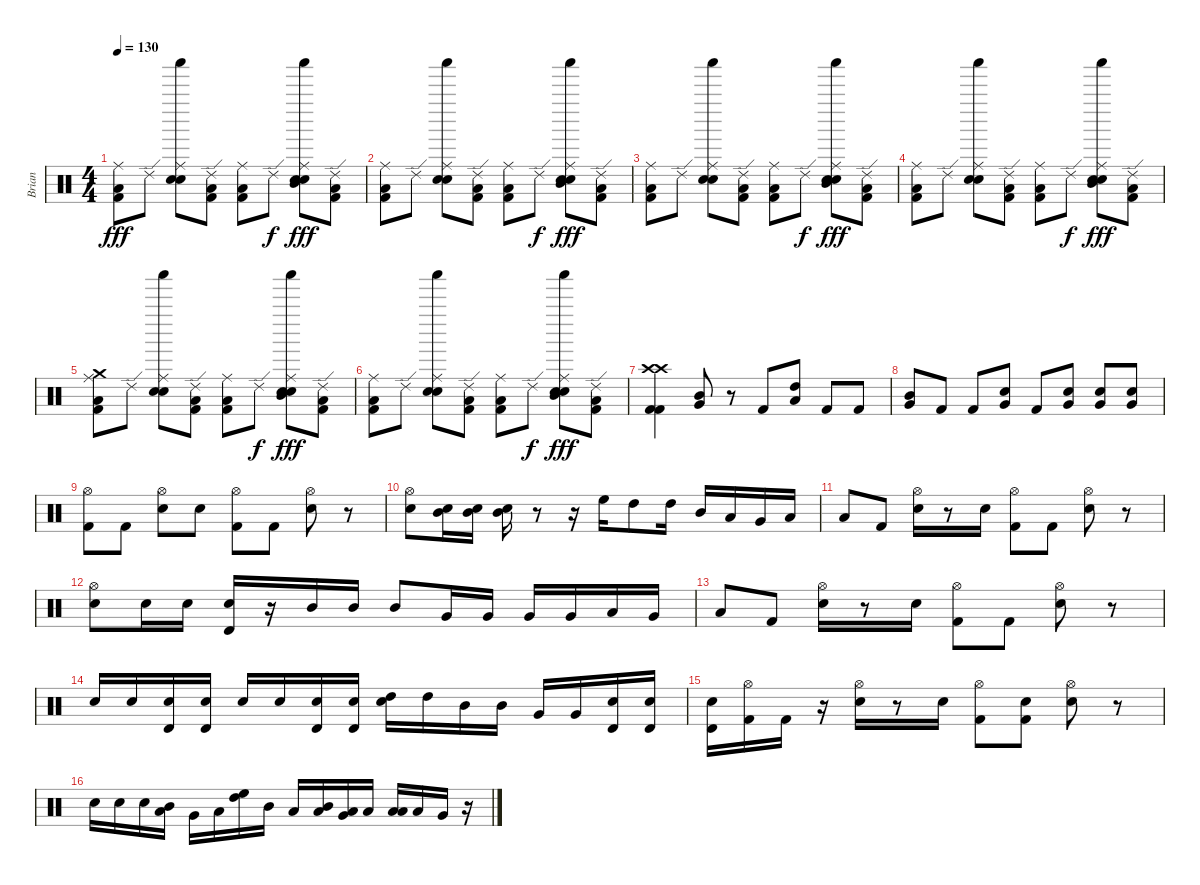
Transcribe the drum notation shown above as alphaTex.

\track ("Brian" "Brian") {instrument percussion}
\staff {score}
\articulation defaults
\ts (4 4)
\tempo 130
\clef neutral
\ks c
("Ride (middle)" "Low Tom (hit)" "Kick (hit) 2").8{dy fff} "Ride (edge) 2".8 ("Shaker (hit)" "Ride (middle)" "Hand Clap (hit)" "Snare (hit) 2").8 ("Ride (edge) 2" "Low Tom (hit)" "Kick (hit) 2").8 ("Ride (middle)" "Low Tom (hit)" "Kick (hit) 2").8 "Ride (edge) 2".8{dy f} ("Shaker (hit)" "Ride (middle)" "Hand Clap (hit)" "Snare (hit) 2" "Mid Tom (hit)").8{dy fff} ("Ride (edge) 2" "Kick (hit) 2" "Low Tom (hit)").8 |
("Ride (middle)" "Low Tom (hit)" "Kick (hit) 2").8 "Ride (edge) 2".8 ("Shaker (hit)" "Ride (middle)" "Hand Clap (hit)" "Snare (hit) 2").8 ("Ride (edge) 2" "Low Tom (hit)" "Kick (hit) 2").8 ("Ride (middle)" "Low Tom (hit)" "Kick (hit) 2").8 "Ride (edge) 2".8{dy f} ("Shaker (hit)" "Ride (middle)" "Hand Clap (hit)" "Snare (hit) 2" "Mid Tom (hit)").8{dy fff} ("Ride (edge) 2" "Kick (hit) 2" "Low Tom (hit)").8 |
("Ride (middle)" "Low Tom (hit)" "Kick (hit) 2").8 "Ride (edge) 2".8 ("Shaker (hit)" "Ride (middle)" "Hand Clap (hit)" "Snare (hit) 2").8 ("Ride (edge) 2" "Low Tom (hit)" "Kick (hit) 2").8 ("Ride (middle)" "Low Tom (hit)" "Kick (hit) 2").8 "Ride (edge) 2".8{dy f} ("Shaker (hit)" "Ride (middle)" "Hand Clap (hit)" "Snare (hit) 2" "Mid Tom (hit)").8{dy fff} ("Ride (edge) 2" "Kick (hit) 2" "Low Tom (hit)").8 |
("Ride (middle)" "Low Tom (hit)" "Kick (hit) 2").8 "Ride (edge) 2".8 ("Shaker (hit)" "Ride (middle)" "Hand Clap (hit)" "Snare (hit) 2").8 ("Ride (edge) 2" "Low Tom (hit)" "Kick (hit) 2").8 ("Ride (middle)" "Low Tom (hit)" "Kick (hit) 2").8 "Ride (edge) 2".8{dy f} ("Shaker (hit)" "Ride (middle)" "Hand Clap (hit)" "Snare (hit) 2" "Mid Tom (hit)").8{dy fff} ("Ride (edge) 2" "Kick (hit) 2" "Low Tom (hit)").8 |
("Crash medium (hit)" "Ride (middle)" "Low Tom (hit)" "Kick (hit) 2").8 "Ride (edge) 2".8 ("Shaker (hit)" "Ride (middle)" "Hand Clap (hit)" "Snare (hit) 2").8 ("Ride (edge) 2" "Low Tom (hit)" "Kick (hit) 2").8 ("Ride (middle)" "Low Tom (hit)" "Kick (hit) 2").8 "Ride (edge) 2".8{dy f} ("Shaker (hit)" "Ride (middle)" "Hand Clap (hit)" "Snare (hit) 2" "Mid Tom (hit)").8{dy fff} ("Ride (edge) 2" "Kick (hit) 2" "Low Tom (hit)").8 |
("Ride (middle)" "Low Tom (hit)" "Kick (hit) 2").8 "Ride (edge) 2".8 ("Shaker (hit)" "Ride (middle)" "Hand Clap (hit)" "Snare (hit) 2").8 ("Ride (edge) 2" "Low Tom (hit)" "Kick (hit) 2").8 ("Ride (middle)" "Low Tom (hit)" "Kick (hit) 2").8 "Ride (edge) 2".8{dy f} ("Shaker (hit)" "Ride (middle)" "Hand Clap (hit)" "Snare (hit) 2" "Mid Tom (hit)").8{dy fff} ("Ride (edge) 2" "Kick (hit) 2" "Low Tom (hit)").8 |
("Crash high (hit)" "Crash high (hit)" "Kick (hit) 2" "Kick (hit) 2").4 ("Mid Tom (hit)" "Very Low Tom (hit)").8 r.8 "Kick (hit) 2".8 ("High Tom (hit)" "Low Tom (hit)").8 "Kick (hit) 2".8 "Kick (hit) 2".8 |
("Mid Tom (hit)" "Very Low Tom (hit)").8 "Kick (hit) 2".8 "Kick (hit) 2".8 ("Very Low Tom (hit)" "Electric Snare (hit)").8 "Kick (hit) 2".8 ("Very Low Tom (hit)" "Electric Snare (hit)").8 ("Very Low Tom (hit)" "Electric Snare (hit)").8 ("Very Low Tom (hit)" "Electric Snare (hit)").8 |
("Hi-Hat (open)" "Kick (hit) 2").8 "Kick (hit) 2".8 ("Hi-Hat (open)" "Electric Snare (hit)").8 "Electric Snare (hit)".8 ("Hi-Hat (open)" "Kick (hit) 2").8 "Kick (hit) 2".8 ("Hi-Hat (open)" "Electric Snare (hit)").8 r.8 |
("Hi-Hat (open)" "Electric Snare (hit)").8 ("Mid Tom (hit)" "Electric Snare (hit)").16 ("Mid Tom (hit)" "Electric Snare (hit)").16 ("Mid Tom (hit)" "Electric Snare (hit)").16 r.8 r.16 "High Floor Tom (hit)".16 "High Tom (hit)".8 "High Tom (hit)".16 "Mid Tom (hit)".16 "Low Tom (hit)".16 "Very Low Tom (hit)".16 "Low Floor Tom (hit)".16 |
"Low Floor Tom (hit)".8 "Kick (hit) 2".8 ("Hi-Hat (open)" "Electric Snare (hit)").16 r.8 "Electric Snare (hit)".16 ("Hi-Hat (open)" "Kick (hit) 2").8 "Kick (hit) 2".8 ("Hi-Hat (open)" "Electric Snare (hit)").8 r.8 |
("Hi-Hat (open)" "Electric Snare (hit)").8 "Electric Snare (hit)".16 "Electric Snare (hit)".16 ("Timbale high (hit)" "Electric Snare (hit)").16 r.16 "Mid Tom (hit)".16 "Mid Tom (hit)".16 "Mid Tom (hit)".8 "Very Low Tom (hit)".16 "Very Low Tom (hit)".16 "Very Low Tom (hit)".16 "Very Low Tom (hit)".16 "Low Tom (hit)".16 "Very Low Tom (hit)".16 |
"Low Floor Tom (hit)".8 "Kick (hit) 2".8 ("Hi-Hat (open)" "Electric Snare (hit)").16 r.8 "Electric Snare (hit)".16 ("Hi-Hat (open)" "Kick (hit) 2").8 "Kick (hit) 2".8 ("Hi-Hat (open)" "Electric Snare (hit)").8 r.8 |
"Electric Snare (hit)".16 "Electric Snare (hit)".16 ("Timbale high (hit)" "Electric Snare (hit)").16 ("Timbale high (hit)" "Electric Snare (hit)").16 "Electric Snare (hit)".16 "Electric Snare (hit)".16 ("Timbale high (hit)" "Electric Snare (hit)").16 ("Timbale high (hit)" "Electric Snare (hit)").16 ("High Tom (hit)" "Electric Snare (hit)").16 "High Tom (hit)".16 "Mid Tom (hit)".16 "Mid Tom (hit)".16 "Very Low Tom (hit)".16 "Very Low Tom (hit)".16 ("Timbale high (hit)" "Electric Snare (hit)").16 ("Timbale high (hit)" "Electric Snare (hit)").16 |
("Timbale high (hit)" "Electric Snare (hit)").16 ("Hi-Hat (open)" "Kick (hit) 2").16 "Kick (hit) 2".16 r.16 ("Hi-Hat (open)" "Electric Snare (hit)").16 r.8 "Electric Snare (hit)".16 ("Hi-Hat (open)" "Kick (hit) 2").8 ("Electric Snare (hit)" "Kick (hit) 2").8 ("Hi-Hat (open)" "Electric Snare (hit)").8 r.8 |
"Electric Snare (hit)".16 "Electric Snare (hit)".16 "Electric Snare (hit)".16 ("Mid Tom (hit)" "Low Tom (hit)").16 "Very Low Tom (hit)".16 "Low Floor Tom (hit)".16 ("High Floor Tom (hit)" "High Tom (hit)").16 "Mid Tom (hit)".16 "Low Tom (hit)".16 ("Mid Tom (hit)" "Low Tom (hit)").16 ("Very Low Tom (hit)" "Low Floor Tom (hit)").16 "Low Floor Tom (hit)".16 ("Low Tom (hit)" "Low Floor Tom (hit)").16 "Low Floor Tom (hit)".16 "Very Low Tom (hit)".16 r.16
